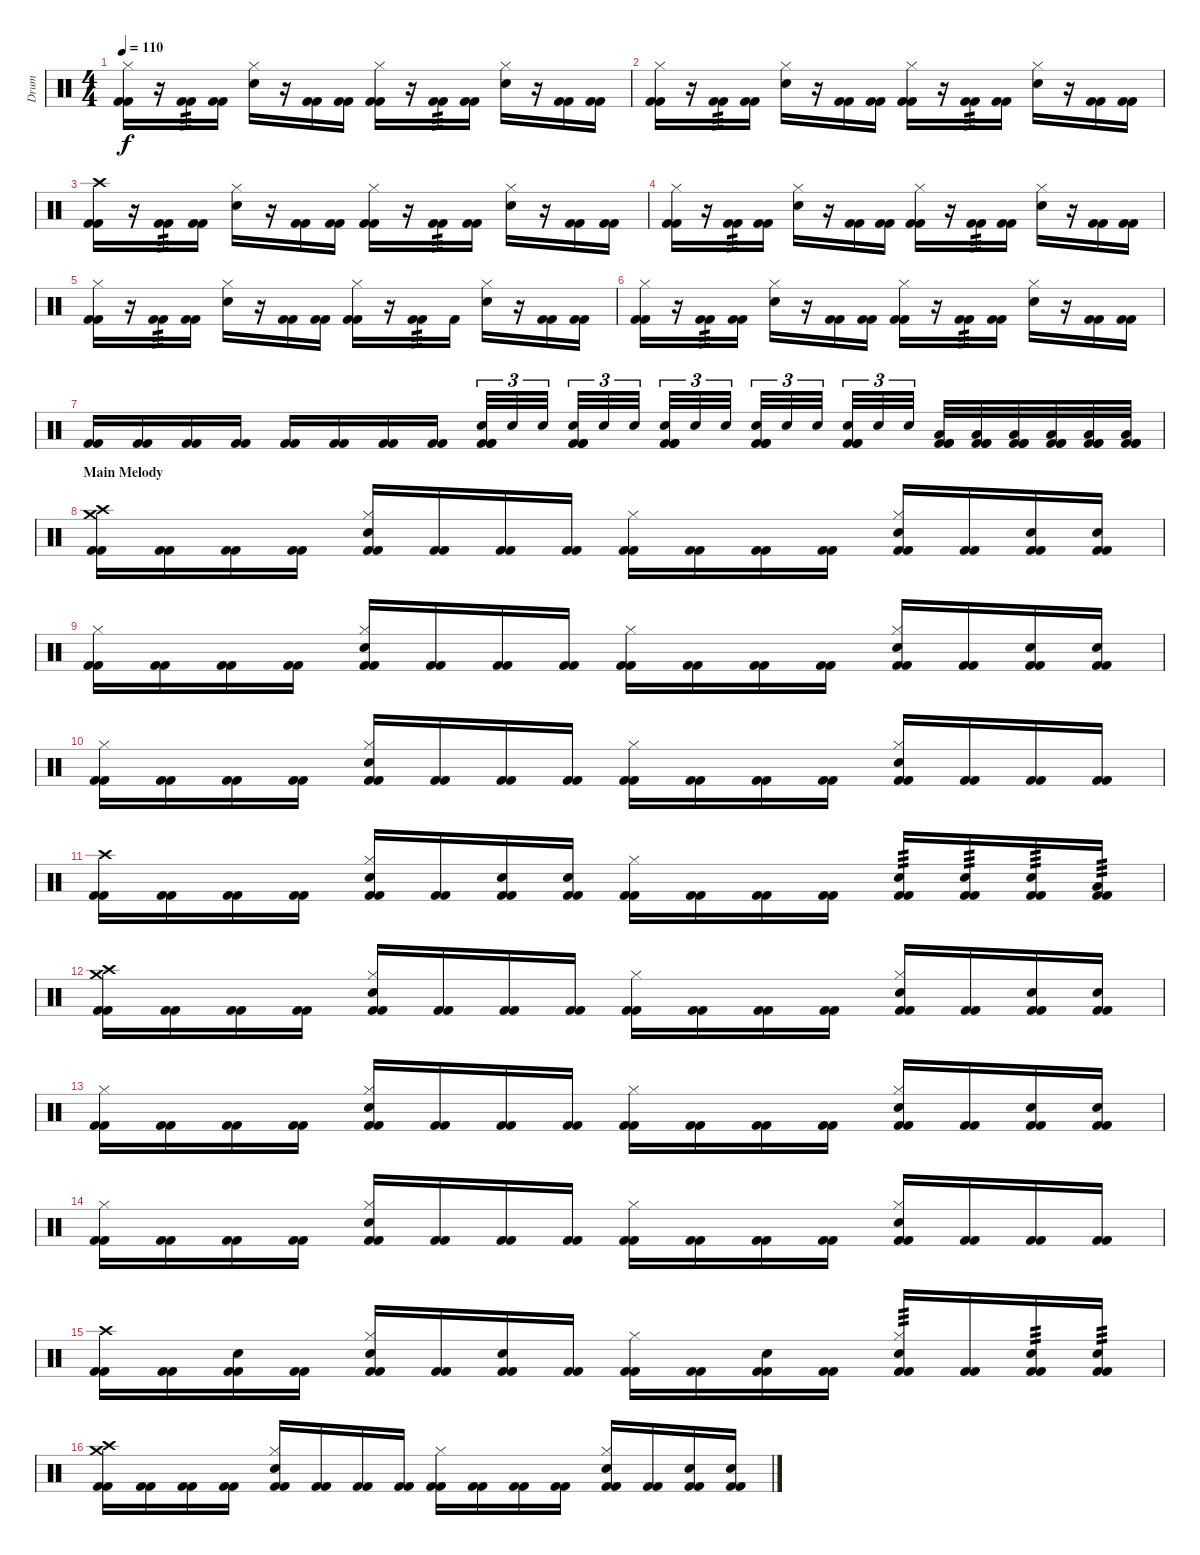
\track ("Drum" "Drum") {instrument percussion}
\staff {score}
\articulation defaults
\ts (4 4)
\tempo 110
\clef neutral
\ks c
("Kick (hit) 2" "Kick (hit) 2" "Hi-Hat (closed)").16{dy f} r.16 ("Kick (hit) 2" "Kick (hit) 2").16{tp 3} ("Kick (hit) 2" "Kick (hit) 2").16 ("Electric Snare (hit)" "Hi-Hat (closed)").16 r.16 ("Kick (hit) 2" "Kick (hit) 2").16 ("Kick (hit) 2" "Kick (hit) 2").16 ("Kick (hit) 2" "Kick (hit) 2" "Hi-Hat (closed)").16 r.16 ("Kick (hit) 2" "Kick (hit) 2").16{tp 3} ("Kick (hit) 2" "Kick (hit) 2").16 ("Electric Snare (hit)" "Hi-Hat (closed)").16 r.16 ("Kick (hit) 2" "Kick (hit) 2").16 ("Kick (hit) 2" "Kick (hit) 2").16 |
("Kick (hit) 2" "Kick (hit) 2" "Hi-Hat (closed)").16 r.16 ("Kick (hit) 2" "Kick (hit) 2").16{tp 3} ("Kick (hit) 2" "Kick (hit) 2").16 ("Electric Snare (hit)" "Hi-Hat (closed)").16 r.16 ("Kick (hit) 2" "Kick (hit) 2").16 ("Kick (hit) 2" "Kick (hit) 2").16 ("Kick (hit) 2" "Kick (hit) 2" "Hi-Hat (closed)").16 r.16 ("Kick (hit) 2" "Kick (hit) 2").16{tp 3} ("Kick (hit) 2" "Kick (hit) 2").16 ("Electric Snare (hit)" "Hi-Hat (closed)").16 r.16 ("Kick (hit) 2" "Kick (hit) 2").16 ("Kick (hit) 2" "Kick (hit) 2").16 |
("Kick (hit) 2" "Kick (hit) 2" "Crash high (hit)").16 r.16 ("Kick (hit) 2" "Kick (hit) 2").16{tp 3} ("Kick (hit) 2" "Kick (hit) 2").16 ("Electric Snare (hit)" "Hi-Hat (closed)").16 r.16 ("Kick (hit) 2" "Kick (hit) 2").16 ("Kick (hit) 2" "Kick (hit) 2").16 ("Kick (hit) 2" "Kick (hit) 2" "Hi-Hat (closed)").16 r.16 ("Kick (hit) 2" "Kick (hit) 2").16{tp 3} ("Kick (hit) 2" "Kick (hit) 2").16 ("Electric Snare (hit)" "Hi-Hat (closed)").16 r.16 ("Kick (hit) 2" "Kick (hit) 2").16 ("Kick (hit) 2" "Kick (hit) 2").16 |
("Kick (hit) 2" "Kick (hit) 2" "Hi-Hat (closed)").16 r.16 ("Kick (hit) 2" "Kick (hit) 2").16{tp 3} ("Kick (hit) 2" "Kick (hit) 2").16 ("Electric Snare (hit)" "Hi-Hat (closed)").16 r.16 ("Kick (hit) 2" "Kick (hit) 2").16 ("Kick (hit) 2" "Kick (hit) 2").16 ("Kick (hit) 2" "Kick (hit) 2" "Hi-Hat (closed)").16 r.16 ("Kick (hit) 2" "Kick (hit) 2").16{tp 3} ("Kick (hit) 2" "Kick (hit) 2").16 ("Electric Snare (hit)" "Hi-Hat (closed)").16 r.16 ("Kick (hit) 2" "Kick (hit) 2").16 ("Kick (hit) 2" "Kick (hit) 2").16 |
("Kick (hit) 2" "Kick (hit) 2" "Hi-Hat (closed)").16 r.16 ("Kick (hit) 2" "Kick (hit) 2").16{tp 3} ("Kick (hit) 2" "Kick (hit) 2").16 ("Electric Snare (hit)" "Hi-Hat (closed)").16 r.16 ("Kick (hit) 2" "Kick (hit) 2").16 ("Kick (hit) 2" "Kick (hit) 2").16 ("Kick (hit) 2" "Kick (hit) 2" "Hi-Hat (closed)").16 r.16 ("Kick (hit) 2" "Kick (hit) 2").16{tp 3} "Kick (hit) 2".16 ("Electric Snare (hit)" "Hi-Hat (closed)").16 r.16 ("Kick (hit) 2" "Kick (hit) 2").16 ("Kick (hit) 2" "Kick (hit) 2").16 |
("Kick (hit) 2" "Kick (hit) 2" "Hi-Hat (closed)").16 r.16 ("Kick (hit) 2" "Kick (hit) 2").16{tp 3} ("Kick (hit) 2" "Kick (hit) 2").16 ("Electric Snare (hit)" "Hi-Hat (closed)").16 r.16 ("Kick (hit) 2" "Kick (hit) 2").16 ("Kick (hit) 2" "Kick (hit) 2").16 ("Kick (hit) 2" "Kick (hit) 2" "Hi-Hat (closed)").16 r.16 ("Kick (hit) 2" "Kick (hit) 2").16{tp 3} ("Kick (hit) 2" "Kick (hit) 2").16 ("Electric Snare (hit)" "Hi-Hat (closed)").16 r.16 ("Kick (hit) 2" "Kick (hit) 2").16 ("Kick (hit) 2" "Kick (hit) 2").16 |
("Kick (hit) 2" "Kick (hit) 2").16 ("Kick (hit) 2" "Kick (hit) 2").16 ("Kick (hit) 2" "Kick (hit) 2").16 ("Kick (hit) 2" "Kick (hit) 2").16 ("Kick (hit) 2" "Kick (hit) 2").16 ("Kick (hit) 2" "Kick (hit) 2").16 ("Kick (hit) 2" "Kick (hit) 2").16 ("Kick (hit) 2" "Kick (hit) 2").16 ("Kick (hit) 2" "Kick (hit) 2" "Kick (hit) 2" "Electric Snare (hit)").32{tu (3 2)} "Electric Snare (hit)".32{tu (3 2)} "Electric Snare (hit)".32{tu (3 2)} ("Kick (hit) 2" "Kick (hit) 2" "Kick (hit) 2" "Electric Snare (hit)").32{tu (3 2)} "Electric Snare (hit)".32{tu (3 2)} "Electric Snare (hit)".32{tu (3 2)} ("Kick (hit) 2" "Kick (hit) 2" "Kick (hit) 2" "Electric Snare (hit)").32{tu (3 2)} "Electric Snare (hit)".32{tu (3 2)} "Electric Snare (hit)".32{tu (3 2)} ("Kick (hit) 2" "Kick (hit) 2" "Kick (hit) 2" "Electric Snare (hit)").32{tu (3 2)} "Electric Snare (hit)".32{tu (3 2)} "Electric Snare (hit)".32{tu (3 2)} ("Kick (hit) 2" "Kick (hit) 2" "Kick (hit) 2" "Electric Snare (hit)").32{tu (3 2)} "Electric Snare (hit)".32{tu (3 2)} "Electric Snare (hit)".32{tu (3 2)} ("Kick (hit) 2" "Kick (hit) 2" "Kick (hit) 2" "Low Tom (hit)").32 ("Kick (hit) 2" "Kick (hit) 2" "Kick (hit) 2" "Low Tom (hit)").32 ("Kick (hit) 2" "Kick (hit) 2" "Kick (hit) 2" "Low Floor Tom (hit)").32 ("Kick (hit) 2" "Kick (hit) 2" "Kick (hit) 2" "Low Floor Tom (hit)").32 ("Kick (hit) 2" "Kick (hit) 2" "Kick (hit) 2" "Low Floor Tom (hit)").32 ("Kick (hit) 2" "Kick (hit) 2" "Kick (hit) 2" "Low Floor Tom (hit)").32 |
\section ("" "Main Melody")
("Kick (hit) 2" "Kick (hit) 2" "Crash high (hit)" "Crash medium (hit)").16 ("Kick (hit) 2" "Kick (hit) 2").16 ("Kick (hit) 2" "Kick (hit) 2").16 ("Kick (hit) 2" "Kick (hit) 2").16 ("Kick (hit) 2" "Kick (hit) 2" "Electric Snare (hit)" "Hi-Hat (closed)").16 ("Kick (hit) 2" "Kick (hit) 2").16 ("Kick (hit) 2" "Kick (hit) 2").16 ("Kick (hit) 2" "Kick (hit) 2").16 ("Kick (hit) 2" "Kick (hit) 2" "Hi-Hat (closed)").16 ("Kick (hit) 2" "Kick (hit) 2").16 ("Kick (hit) 2" "Kick (hit) 2").16 ("Kick (hit) 2" "Kick (hit) 2").16 ("Kick (hit) 2" "Kick (hit) 2" "Electric Snare (hit)" "Hi-Hat (closed)").16 ("Kick (hit) 2" "Kick (hit) 2").16 ("Kick (hit) 2" "Kick (hit) 2" "Electric Snare (hit)").16 ("Kick (hit) 2" "Kick (hit) 2" "Electric Snare (hit)").16 |
("Kick (hit) 2" "Kick (hit) 2" "Hi-Hat (closed)").16 ("Kick (hit) 2" "Kick (hit) 2").16 ("Kick (hit) 2" "Kick (hit) 2").16 ("Kick (hit) 2" "Kick (hit) 2").16 ("Kick (hit) 2" "Kick (hit) 2" "Electric Snare (hit)" "Hi-Hat (closed)").16 ("Kick (hit) 2" "Kick (hit) 2").16 ("Kick (hit) 2" "Kick (hit) 2").16 ("Kick (hit) 2" "Kick (hit) 2").16 ("Kick (hit) 2" "Kick (hit) 2" "Hi-Hat (closed)").16 ("Kick (hit) 2" "Kick (hit) 2").16 ("Kick (hit) 2" "Kick (hit) 2").16 ("Kick (hit) 2" "Kick (hit) 2").16 ("Kick (hit) 2" "Kick (hit) 2" "Electric Snare (hit)" "Hi-Hat (closed)").16 ("Kick (hit) 2" "Kick (hit) 2").16 ("Kick (hit) 2" "Kick (hit) 2" "Electric Snare (hit)").16 ("Kick (hit) 2" "Kick (hit) 2" "Electric Snare (hit)").16 |
("Kick (hit) 2" "Kick (hit) 2" "Hi-Hat (closed)").16 ("Kick (hit) 2" "Kick (hit) 2").16 ("Kick (hit) 2" "Kick (hit) 2").16 ("Kick (hit) 2" "Kick (hit) 2").16 ("Kick (hit) 2" "Kick (hit) 2" "Electric Snare (hit)" "Hi-Hat (closed)").16 ("Kick (hit) 2" "Kick (hit) 2").16 ("Kick (hit) 2" "Kick (hit) 2").16 ("Kick (hit) 2" "Kick (hit) 2").16 ("Kick (hit) 2" "Kick (hit) 2" "Hi-Hat (closed)").16 ("Kick (hit) 2" "Kick (hit) 2").16 ("Kick (hit) 2" "Kick (hit) 2").16 ("Kick (hit) 2" "Kick (hit) 2").16 ("Kick (hit) 2" "Kick (hit) 2" "Electric Snare (hit)" "Hi-Hat (closed)").16 ("Kick (hit) 2" "Kick (hit) 2").16 ("Kick (hit) 2" "Kick (hit) 2").16 ("Kick (hit) 2" "Kick (hit) 2").16 |
("Kick (hit) 2" "Kick (hit) 2" "Crash high (hit)").16 ("Kick (hit) 2" "Kick (hit) 2").16 ("Kick (hit) 2" "Kick (hit) 2").16 ("Kick (hit) 2" "Kick (hit) 2").16 ("Kick (hit) 2" "Kick (hit) 2" "Electric Snare (hit)" "Hi-Hat (closed)").16 ("Kick (hit) 2" "Kick (hit) 2").16 ("Kick (hit) 2" "Kick (hit) 2" "Electric Snare (hit)").16 ("Kick (hit) 2" "Kick (hit) 2" "Electric Snare (hit)").16 ("Kick (hit) 2" "Kick (hit) 2" "Hi-Hat (closed)").16 ("Kick (hit) 2" "Kick (hit) 2").16 ("Kick (hit) 2" "Kick (hit) 2").16 ("Kick (hit) 2" "Kick (hit) 2").16 ("Kick (hit) 2" "Kick (hit) 2" "Electric Snare (hit)").16{tp 3} ("Kick (hit) 2" "Kick (hit) 2" "Electric Snare (hit)").16{tp 3} ("Kick (hit) 2" "Kick (hit) 2" "Electric Snare (hit)").16{tp 3} ("Kick (hit) 2" "Kick (hit) 2" "Low Floor Tom (hit)").16{tp 3} |
("Kick (hit) 2" "Kick (hit) 2" "Crash high (hit)" "Crash medium (hit)").16 ("Kick (hit) 2" "Kick (hit) 2").16 ("Kick (hit) 2" "Kick (hit) 2").16 ("Kick (hit) 2" "Kick (hit) 2").16 ("Kick (hit) 2" "Kick (hit) 2" "Electric Snare (hit)" "Hi-Hat (closed)").16 ("Kick (hit) 2" "Kick (hit) 2").16 ("Kick (hit) 2" "Kick (hit) 2").16 ("Kick (hit) 2" "Kick (hit) 2").16 ("Kick (hit) 2" "Kick (hit) 2" "Hi-Hat (closed)").16 ("Kick (hit) 2" "Kick (hit) 2").16 ("Kick (hit) 2" "Kick (hit) 2").16 ("Kick (hit) 2" "Kick (hit) 2").16 ("Kick (hit) 2" "Kick (hit) 2" "Electric Snare (hit)" "Hi-Hat (closed)").16 ("Kick (hit) 2" "Kick (hit) 2").16 ("Kick (hit) 2" "Kick (hit) 2" "Electric Snare (hit)").16 ("Kick (hit) 2" "Kick (hit) 2" "Electric Snare (hit)").16 |
("Kick (hit) 2" "Kick (hit) 2" "Hi-Hat (closed)").16 ("Kick (hit) 2" "Kick (hit) 2").16 ("Kick (hit) 2" "Kick (hit) 2").16 ("Kick (hit) 2" "Kick (hit) 2").16 ("Kick (hit) 2" "Kick (hit) 2" "Electric Snare (hit)" "Hi-Hat (closed)").16 ("Kick (hit) 2" "Kick (hit) 2").16 ("Kick (hit) 2" "Kick (hit) 2").16 ("Kick (hit) 2" "Kick (hit) 2").16 ("Kick (hit) 2" "Kick (hit) 2" "Hi-Hat (closed)").16 ("Kick (hit) 2" "Kick (hit) 2").16 ("Kick (hit) 2" "Kick (hit) 2").16 ("Kick (hit) 2" "Kick (hit) 2").16 ("Kick (hit) 2" "Kick (hit) 2" "Electric Snare (hit)" "Hi-Hat (closed)").16 ("Kick (hit) 2" "Kick (hit) 2").16 ("Kick (hit) 2" "Kick (hit) 2" "Electric Snare (hit)").16 ("Kick (hit) 2" "Kick (hit) 2" "Electric Snare (hit)").16 |
("Kick (hit) 2" "Kick (hit) 2" "Hi-Hat (closed)").16 ("Kick (hit) 2" "Kick (hit) 2").16 ("Kick (hit) 2" "Kick (hit) 2").16 ("Kick (hit) 2" "Kick (hit) 2").16 ("Kick (hit) 2" "Kick (hit) 2" "Electric Snare (hit)" "Hi-Hat (closed)").16 ("Kick (hit) 2" "Kick (hit) 2").16 ("Kick (hit) 2" "Kick (hit) 2").16 ("Kick (hit) 2" "Kick (hit) 2").16 ("Kick (hit) 2" "Kick (hit) 2" "Hi-Hat (closed)").16 ("Kick (hit) 2" "Kick (hit) 2").16 ("Kick (hit) 2" "Kick (hit) 2").16 ("Kick (hit) 2" "Kick (hit) 2").16 ("Kick (hit) 2" "Kick (hit) 2" "Electric Snare (hit)" "Hi-Hat (closed)").16 ("Kick (hit) 2" "Kick (hit) 2").16 ("Kick (hit) 2" "Kick (hit) 2").16 ("Kick (hit) 2" "Kick (hit) 2").16 |
("Kick (hit) 2" "Kick (hit) 2" "Crash high (hit)").16 ("Kick (hit) 2" "Kick (hit) 2").16 ("Kick (hit) 2" "Kick (hit) 2" "Electric Snare (hit)").16 ("Kick (hit) 2" "Kick (hit) 2").16 ("Kick (hit) 2" "Kick (hit) 2" "Electric Snare (hit)" "Hi-Hat (closed)").16 ("Kick (hit) 2" "Kick (hit) 2").16 ("Kick (hit) 2" "Kick (hit) 2" "Electric Snare (hit)").16 ("Kick (hit) 2" "Kick (hit) 2").16 ("Kick (hit) 2" "Kick (hit) 2" "Hi-Hat (closed)").16 ("Kick (hit) 2" "Kick (hit) 2").16 ("Kick (hit) 2" "Kick (hit) 2" "Electric Snare (hit)").16 ("Kick (hit) 2" "Kick (hit) 2").16 ("Kick (hit) 2" "Kick (hit) 2" "Electric Snare (hit)" "Hi-Hat (closed)").16{tp 3} ("Kick (hit) 2" "Kick (hit) 2").16 ("Kick (hit) 2" "Kick (hit) 2" "Electric Snare (hit)").16{tp 3} ("Kick (hit) 2" "Kick (hit) 2" "Electric Snare (hit)").16{tp 3} |
("Kick (hit) 2" "Kick (hit) 2" "Crash high (hit)" "Crash medium (hit)").16 ("Kick (hit) 2" "Kick (hit) 2").16 ("Kick (hit) 2" "Kick (hit) 2").16 ("Kick (hit) 2" "Kick (hit) 2").16 ("Kick (hit) 2" "Kick (hit) 2" "Electric Snare (hit)" "Hi-Hat (closed)").16 ("Kick (hit) 2" "Kick (hit) 2").16 ("Kick (hit) 2" "Kick (hit) 2").16 ("Kick (hit) 2" "Kick (hit) 2").16 ("Kick (hit) 2" "Kick (hit) 2" "Hi-Hat (closed)").16 ("Kick (hit) 2" "Kick (hit) 2").16 ("Kick (hit) 2" "Kick (hit) 2").16 ("Kick (hit) 2" "Kick (hit) 2").16 ("Kick (hit) 2" "Kick (hit) 2" "Electric Snare (hit)" "Hi-Hat (closed)").16 ("Kick (hit) 2" "Kick (hit) 2").16 ("Kick (hit) 2" "Kick (hit) 2" "Electric Snare (hit)").16 ("Kick (hit) 2" "Kick (hit) 2" "Electric Snare (hit)").16
